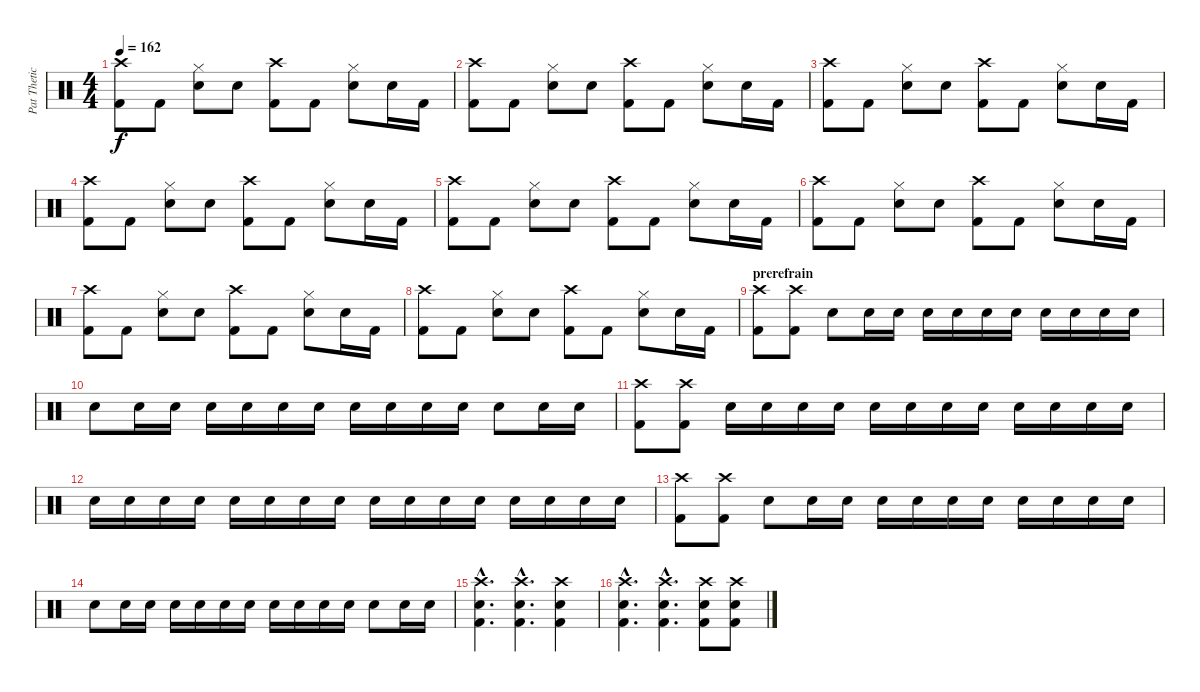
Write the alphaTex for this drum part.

\track ("Pat Thetic" "Pat Thetic") {instrument percussion}
\staff {score}
\articulation defaults
\ts (4 4)
\tempo 162
\clef neutral
\ks c
("Crash high (hit)" "Kick (hit) 2").8{dy f} "Kick (hit) 2".8 ("Hi-Hat (closed)" "Snare (hit) 2").8 "Snare (hit) 2".8 ("Crash high (hit)" "Kick (hit) 2").8 "Kick (hit) 2".8 ("Hi-Hat (closed)" "Snare (hit) 2").8 "Snare (hit) 2".16 "Kick (hit) 2".16 |
("Crash high (hit)" "Kick (hit) 2").8 "Kick (hit) 2".8 ("Hi-Hat (closed)" "Snare (hit) 2").8 "Snare (hit) 2".8 ("Crash high (hit)" "Kick (hit) 2").8 "Kick (hit) 2".8 ("Hi-Hat (closed)" "Snare (hit) 2").8 "Snare (hit) 2".16 "Kick (hit) 2".16 |
("Crash high (hit)" "Kick (hit) 2").8 "Kick (hit) 2".8 ("Hi-Hat (closed)" "Snare (hit) 2").8 "Snare (hit) 2".8 ("Crash high (hit)" "Kick (hit) 2").8 "Kick (hit) 2".8 ("Hi-Hat (closed)" "Snare (hit) 2").8 "Snare (hit) 2".16 "Kick (hit) 2".16 |
("Crash high (hit)" "Kick (hit) 2").8 "Kick (hit) 2".8 ("Hi-Hat (closed)" "Snare (hit) 2").8 "Snare (hit) 2".8 ("Crash high (hit)" "Kick (hit) 2").8 "Kick (hit) 2".8 ("Hi-Hat (closed)" "Snare (hit) 2").8 "Snare (hit) 2".16 "Kick (hit) 2".16 |
("Crash high (hit)" "Kick (hit) 2").8 "Kick (hit) 2".8 ("Hi-Hat (closed)" "Snare (hit) 2").8 "Snare (hit) 2".8 ("Crash high (hit)" "Kick (hit) 2").8 "Kick (hit) 2".8 ("Hi-Hat (closed)" "Snare (hit) 2").8 "Snare (hit) 2".16 "Kick (hit) 2".16 |
("Crash high (hit)" "Kick (hit) 2").8 "Kick (hit) 2".8 ("Hi-Hat (closed)" "Snare (hit) 2").8 "Snare (hit) 2".8 ("Crash high (hit)" "Kick (hit) 2").8 "Kick (hit) 2".8 ("Hi-Hat (closed)" "Snare (hit) 2").8 "Snare (hit) 2".16 "Kick (hit) 2".16 |
("Crash high (hit)" "Kick (hit) 2").8 "Kick (hit) 2".8 ("Hi-Hat (closed)" "Snare (hit) 2").8 "Snare (hit) 2".8 ("Crash high (hit)" "Kick (hit) 2").8 "Kick (hit) 2".8 ("Hi-Hat (closed)" "Snare (hit) 2").8 "Snare (hit) 2".16 "Kick (hit) 2".16 |
("Crash high (hit)" "Kick (hit) 2").8 "Kick (hit) 2".8 ("Hi-Hat (closed)" "Snare (hit) 2").8 "Snare (hit) 2".8 ("Crash high (hit)" "Kick (hit) 2").8 "Kick (hit) 2".8 ("Hi-Hat (closed)" "Snare (hit) 2").8 "Snare (hit) 2".16 "Kick (hit) 2".16 |
\section ("" "prerefrain")
("Crash high (hit)" "Kick (hit) 2").8 ("Crash high (hit)" "Kick (hit) 2").8 "Snare (hit) 2".8 "Snare (hit) 2".16 "Snare (hit) 2".16 "Snare (hit) 2".16 "Snare (hit) 2".16 "Snare (hit) 2".16 "Snare (hit) 2".16 "Snare (hit) 2".16 "Snare (hit) 2".16 "Snare (hit) 2".16 "Snare (hit) 2".16 |
"Snare (hit) 2".8 "Snare (hit) 2".16 "Snare (hit) 2".16 "Snare (hit) 2".16 "Snare (hit) 2".16 "Snare (hit) 2".16 "Snare (hit) 2".16 "Snare (hit) 2".16 "Snare (hit) 2".16 "Snare (hit) 2".16 "Snare (hit) 2".16 "Snare (hit) 2".8 "Snare (hit) 2".16 "Snare (hit) 2".16 |
("Crash high (hit)" "Kick (hit) 2").8 ("Crash high (hit)" "Kick (hit) 2").8 "Snare (hit) 2".16 "Snare (hit) 2".16 "Snare (hit) 2".16 "Snare (hit) 2".16 "Snare (hit) 2".16 "Snare (hit) 2".16 "Snare (hit) 2".16 "Snare (hit) 2".16 "Snare (hit) 2".16 "Snare (hit) 2".16 "Snare (hit) 2".16 "Snare (hit) 2".16 |
"Snare (hit) 2".16 "Snare (hit) 2".16 "Snare (hit) 2".16 "Snare (hit) 2".16 "Snare (hit) 2".16 "Snare (hit) 2".16 "Snare (hit) 2".16 "Snare (hit) 2".16 "Snare (hit) 2".16 "Snare (hit) 2".16 "Snare (hit) 2".16 "Snare (hit) 2".16 "Snare (hit) 2".16 "Snare (hit) 2".16 "Snare (hit) 2".16 "Snare (hit) 2".16 |
("Crash high (hit)" "Kick (hit) 2").8 ("Crash high (hit)" "Kick (hit) 2").8 "Snare (hit) 2".8 "Snare (hit) 2".16 "Snare (hit) 2".16 "Snare (hit) 2".16 "Snare (hit) 2".16 "Snare (hit) 2".16 "Snare (hit) 2".16 "Snare (hit) 2".16 "Snare (hit) 2".16 "Snare (hit) 2".16 "Snare (hit) 2".16 |
"Snare (hit) 2".8 "Snare (hit) 2".16 "Snare (hit) 2".16 "Snare (hit) 2".16 "Snare (hit) 2".16 "Snare (hit) 2".16 "Snare (hit) 2".16 "Snare (hit) 2".16 "Snare (hit) 2".16 "Snare (hit) 2".16 "Snare (hit) 2".16 "Snare (hit) 2".8 "Snare (hit) 2".16 "Snare (hit) 2".16 |
("Crash high (hit)"{hac} "Kick (hit) 2"{hac} "Snare (hit) 2"{hac}).4{d} ("Crash high (hit)"{hac} "Kick (hit) 2"{hac} "Snare (hit) 2"{hac}).4{d} ("Crash high (hit)" "Kick (hit) 2" "Snare (hit) 2").4 |
("Crash high (hit)"{hac} "Kick (hit) 2"{hac} "Snare (hit) 2"{hac}).4{d} ("Crash high (hit)"{hac} "Kick (hit) 2"{hac} "Snare (hit) 2"{hac}).4{d} ("Crash high (hit)" "Kick (hit) 2" "Snare (hit) 2").8 ("Crash high (hit)" "Kick (hit) 2" "Snare (hit) 2").8
